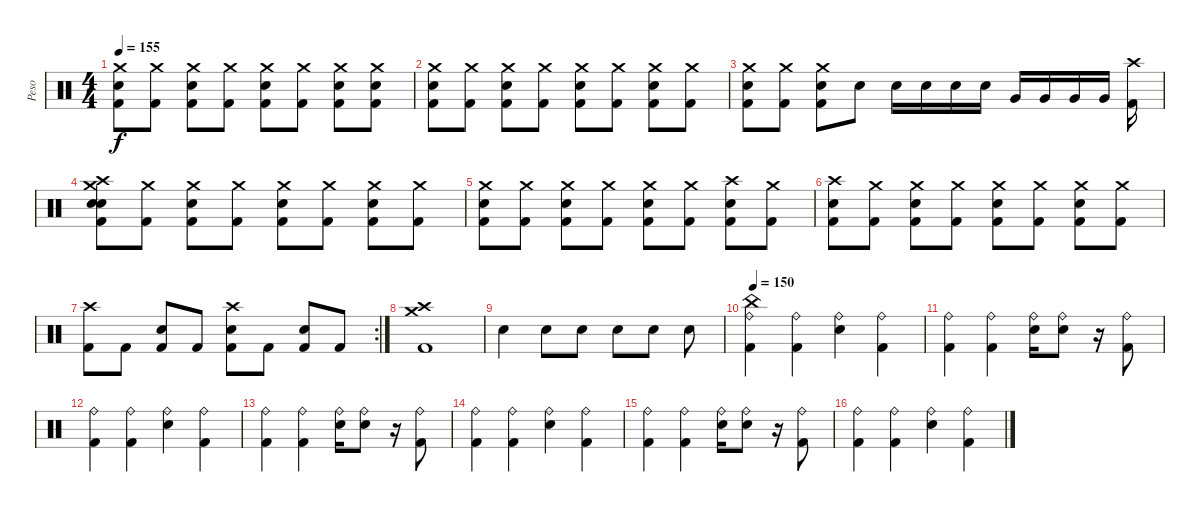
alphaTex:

\track ("Peso" "Peso") {instrument percussion}
\staff {score}
\articulation defaults
\ts (4 4)
\tempo 155
\clef neutral
\ks c
("Crash medium (hit)" "Snare (hit) 2" "Kick (hit) 2").8{dy f} ("Crash medium (hit)" "Kick (hit) 2").8 ("Crash medium (hit)" "Snare (hit) 2" "Kick (hit) 2").8 ("Crash medium (hit)" "Kick (hit) 2").8 ("Crash medium (hit)" "Snare (hit) 2" "Kick (hit) 2").8 ("Crash medium (hit)" "Kick (hit) 2").8 ("Crash medium (hit)" "Snare (hit) 2" "Kick (hit) 2").8 ("Crash medium (hit)" "Snare (hit) 2" "Kick (hit) 2").8 |
("Crash medium (hit)" "Snare (hit) 2" "Kick (hit) 2").8 ("Crash medium (hit)" "Kick (hit) 2").8 ("Crash medium (hit)" "Snare (hit) 2" "Kick (hit) 2").8 ("Crash medium (hit)" "Kick (hit) 2").8 ("Crash medium (hit)" "Snare (hit) 2" "Kick (hit) 2").8 ("Crash medium (hit)" "Kick (hit) 2").8 ("Crash medium (hit)" "Snare (hit) 2" "Kick (hit) 2").8 ("Crash medium (hit)" "Kick (hit) 2").8 |
("Crash medium (hit)" "Snare (hit) 2" "Kick (hit) 2").8 ("Crash medium (hit)" "Kick (hit) 2").8 ("Crash medium (hit)" "Snare (hit) 2" "Kick (hit) 2").8 "Snare (hit) 2".8 "Snare (hit) 2".16 "Snare (hit) 2".16 "Snare (hit) 2".16 "Snare (hit) 2".16 "Very Low Tom (hit)".16 "Very Low Tom (hit)".16 "Very Low Tom (hit)".16 "Very Low Tom (hit)".16 ("Crash high (hit)" "Kick (hit) 2").16 |
("Crash high (hit)" "Crash medium (hit)" "Snare (hit) 2" "Kick (hit) 2" "Snare (hit)").8 ("Crash medium (hit)" "Kick (hit) 2").8 ("Crash medium (hit)" "Snare (hit) 2" "Kick (hit) 2").8 ("Crash medium (hit)" "Kick (hit) 2").8 ("Crash medium (hit)" "Snare (hit) 2" "Kick (hit) 2").8 ("Crash medium (hit)" "Kick (hit) 2").8 ("Crash medium (hit)" "Snare (hit) 2" "Kick (hit) 2").8 ("Crash medium (hit)" "Kick (hit) 2").8 |
("Crash medium (hit)" "Snare (hit) 2" "Kick (hit) 2").8 ("Crash medium (hit)" "Kick (hit) 2").8 ("Crash medium (hit)" "Snare (hit) 2" "Kick (hit) 2").8 ("Crash medium (hit)" "Kick (hit) 2").8 ("Crash medium (hit)" "Snare (hit) 2" "Kick (hit) 2").8 ("Crash medium (hit)" "Kick (hit) 2").8 ("Crash high (hit)" "Snare (hit) 2" "Kick (hit) 2").8 ("Crash medium (hit)" "Kick (hit) 2").8 |
("Crash high (hit)" "Snare (hit) 2" "Kick (hit) 2").8 ("Crash medium (hit)" "Kick (hit) 2").8 ("Crash medium (hit)" "Snare (hit) 2" "Kick (hit) 2").8 ("Crash medium (hit)" "Kick (hit) 2").8 ("Crash medium (hit)" "Snare (hit) 2" "Kick (hit) 2").8 ("Crash medium (hit)" "Kick (hit) 2").8 ("Crash medium (hit)" "Snare (hit) 2" "Kick (hit) 2").8 ("Crash medium (hit)" "Kick (hit) 2").8 |
\rc 2
("Crash high (hit)" "Kick (hit) 2").8 "Kick (hit) 2".8 ("Snare (hit) 2" "Kick (hit) 2").8 "Kick (hit) 2".8 ("Crash high (hit)" "Snare (hit) 2" "Kick (hit) 2").8 "Kick (hit) 2".8 ("Snare (hit) 2" "Kick (hit) 2").8 "Kick (hit) 2".8 |
("Crash high (hit)" "Crash medium (hit)" "Kick (hit) 2").1 |
"Snare (hit)"{x}.4 "Snare (hit) 2".8 "Snare (hit)"{x}.8 "Snare (hit)"{x}.8 "Snare (hit) 2".8 "Snare (hit) 2"{x}.8 |
\tempo 150
("China (hit)" "Ride (bell)" "Kick (hit) 2").4 ("Ride (bell)" "Kick (hit) 2").4 ("Ride (bell)" "Snare (hit) 2").4 ("Ride (bell)" "Kick (hit) 2").4 |
("Ride (bell)" "Kick (hit) 2").4 ("Ride (bell)" "Kick (hit) 2").4 ("Ride (bell)" "Snare (hit) 2").16 ("Ride (bell)" "Snare (hit) 2").8 r.16 ("Ride (bell)" "Kick (hit) 2").8 |
("Ride (bell)" "Kick (hit) 2").4 ("Ride (bell)" "Kick (hit) 2").4 ("Ride (bell)" "Snare (hit) 2").4 ("Ride (bell)" "Kick (hit) 2").4 |
("Ride (bell)" "Kick (hit) 2").4 ("Ride (bell)" "Kick (hit) 2").4 ("Ride (bell)" "Snare (hit) 2").16 ("Ride (bell)" "Snare (hit) 2").8 r.16 ("Ride (bell)" "Kick (hit) 2").8 |
("Ride (bell)" "Kick (hit) 2").4 ("Ride (bell)" "Kick (hit) 2").4 ("Ride (bell)" "Snare (hit) 2").4 ("Ride (bell)" "Kick (hit) 2").4 |
("Ride (bell)" "Kick (hit) 2").4 ("Ride (bell)" "Kick (hit) 2").4 ("Ride (bell)" "Snare (hit) 2").16 ("Ride (bell)" "Snare (hit) 2").8 r.16 ("Ride (bell)" "Kick (hit) 2").8 |
("Ride (bell)" "Kick (hit) 2").4 ("Ride (bell)" "Kick (hit) 2").4 ("Ride (bell)" "Snare (hit) 2").4 ("Ride (bell)" "Kick (hit) 2").4
